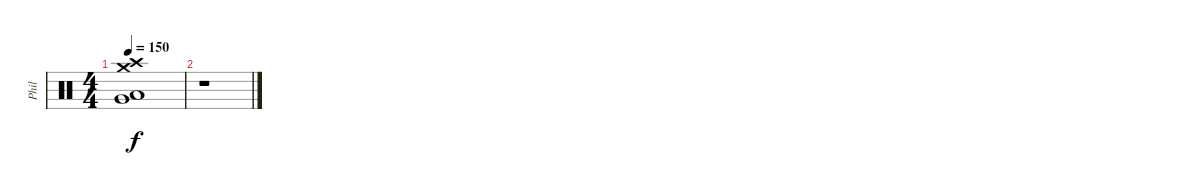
\track ("Phil" "Phil") {instrument percussion}
\staff {score}
\articulation defaults
\ts (4 4)
\tempo 150
\clef neutral
\ks c
("Crash high (hit)" "Crash medium (hit)" "Very Low Tom (hit)" "Low Floor Tom (hit)").1{dy f} |
r.1
